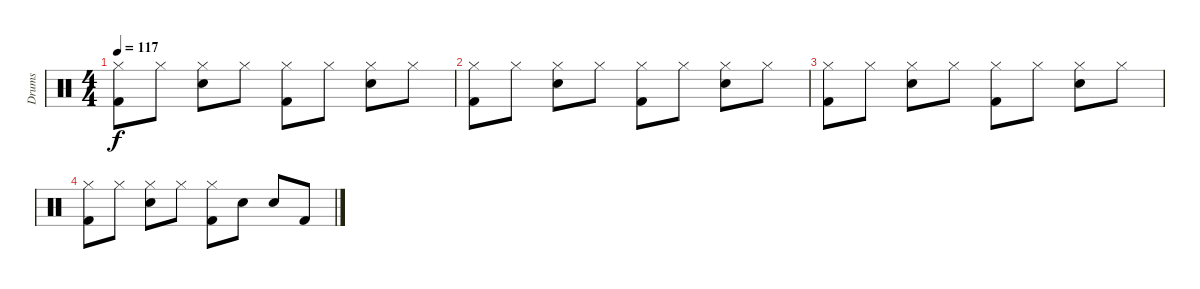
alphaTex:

\track ("Drums" "Drums") {instrument percussion}
\staff {score}
\articulation defaults
\ts (4 4)
\tempo 117
\clef neutral
\ks c
("Hi-Hat (closed)" "Kick (hit) 2").8{dy f} "Hi-Hat (closed)".8 ("Hi-Hat (closed)" "Snare (hit) 2").8 "Hi-Hat (closed)".8 ("Hi-Hat (closed)" "Kick (hit) 2").8 "Hi-Hat (closed)".8 ("Hi-Hat (closed)" "Snare (hit) 2").8 "Hi-Hat (closed)".8 |
("Hi-Hat (closed)" "Kick (hit) 2").8 "Hi-Hat (closed)".8 ("Hi-Hat (closed)" "Snare (hit) 2").8 "Hi-Hat (closed)".8 ("Hi-Hat (closed)" "Kick (hit) 2").8 "Hi-Hat (closed)".8 ("Hi-Hat (closed)" "Snare (hit) 2").8 "Hi-Hat (closed)".8 |
("Hi-Hat (closed)" "Kick (hit) 2").8 "Hi-Hat (closed)".8 ("Hi-Hat (closed)" "Snare (hit) 2").8 "Hi-Hat (closed)".8 ("Hi-Hat (closed)" "Kick (hit) 2").8 "Hi-Hat (closed)".8 ("Hi-Hat (closed)" "Snare (hit) 2").8 "Hi-Hat (closed)".8 |
("Hi-Hat (closed)" "Kick (hit) 2").8 "Hi-Hat (closed)".8 ("Hi-Hat (closed)" "Snare (hit) 2").8 "Hi-Hat (closed)".8 ("Hi-Hat (closed)" "Kick (hit) 2").8 "Electric Snare (hit)".8 "Electric Snare (hit)".8 "Kick (hit) 2".8
